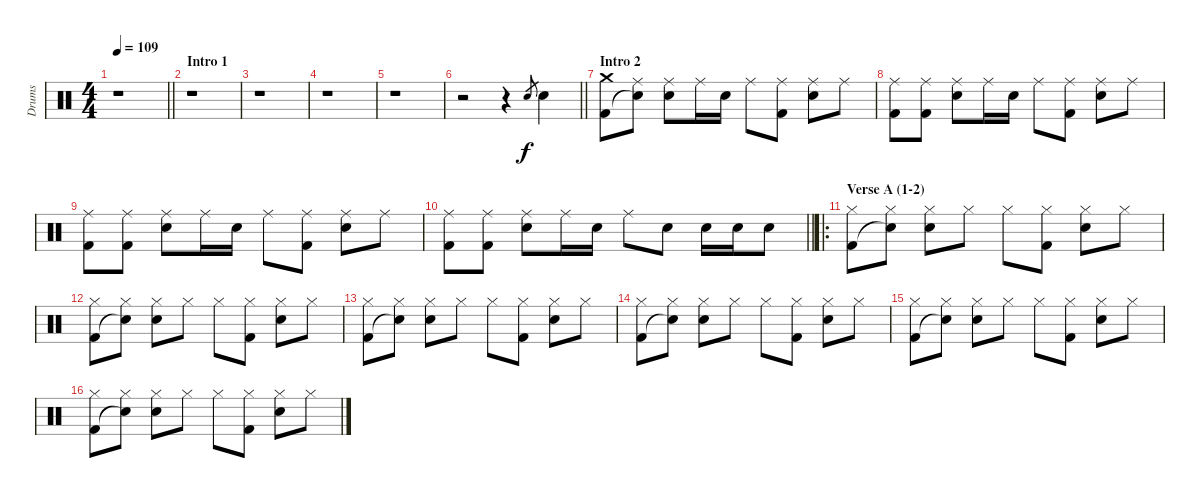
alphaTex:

\track ("Drums" "Drums") {instrument percussion}
\staff {score}
\articulation defaults
\ts (4 4)
\tempo 109
\clef neutral
\barLineRight lightlight
\ks aminor
r.1{dy f} |
\section ("" "Intro 1")
r.1 |
r.1 |
r.1 |
r.1 |
\barLineRight lightlight
r.2 r.4 "Electric Snare (hit)".8{gr} "Electric Snare (hit)".4 |
\section ("" "Intro 2")
("Crash medium (hit)" "Kick (hit) 2").8 ("Ride (middle)" "Snare (hit)"{t}).8 ("Ride (middle)" "Electric Snare (hit)").8 "Ride (middle)".16 "Electric Snare (hit)".16 "Ride (middle)".8 ("Ride (middle)" "Kick (hit) 2").8 ("Ride (middle)" "Electric Snare (hit)").8 "Ride (middle)".8 |
("Ride (middle)" "Kick (hit) 2").8 ("Ride (middle)" "Kick (hit) 2").8 ("Ride (middle)" "Electric Snare (hit)").8 "Ride (middle)".16 "Electric Snare (hit)".16 "Ride (middle)".8 ("Ride (middle)" "Kick (hit) 2").8 ("Ride (middle)" "Electric Snare (hit)").8 "Ride (middle)".8 |
("Ride (middle)" "Kick (hit) 2").8 ("Ride (middle)" "Kick (hit) 2").8 ("Ride (middle)" "Electric Snare (hit)").8 "Ride (middle)".16 "Electric Snare (hit)".16 "Ride (middle)".8 ("Ride (middle)" "Kick (hit) 2").8 ("Ride (middle)" "Electric Snare (hit)").8 "Ride (middle)".8 |
\barLineRight lightlight
("Ride (middle)" "Kick (hit) 2").8 ("Ride (middle)" "Kick (hit) 2").8 ("Ride (middle)" "Electric Snare (hit)").8 "Ride (middle)".16 "Electric Snare (hit)".16 "Ride (middle)".8 "Electric Snare (hit)".8 "Electric Snare (hit)".16 "Electric Snare (hit)".16 "Electric Snare (hit)".8 |
\ro
\section ("" "Verse A (1-2)")
("Hi-Hat (closed)" "Kick (hit) 2").8 ("Hi-Hat (closed)" "Snare (hit)"{t}).8 ("Hi-Hat (closed)" "Electric Snare (hit)").8 "Hi-Hat (closed)".8 "Hi-Hat (closed)".8 ("Hi-Hat (closed)" "Kick (hit) 2").8 ("Hi-Hat (closed)" "Electric Snare (hit)").8 "Hi-Hat (closed)".8 |
("Hi-Hat (closed)" "Kick (hit) 2").8 ("Hi-Hat (closed)" "Snare (hit)"{t}).8 ("Hi-Hat (closed)" "Electric Snare (hit)").8 "Hi-Hat (closed)".8 "Hi-Hat (closed)".8 ("Hi-Hat (closed)" "Kick (hit) 2").8 ("Hi-Hat (closed)" "Electric Snare (hit)").8 "Hi-Hat (closed)".8 |
("Hi-Hat (closed)" "Kick (hit) 2").8 ("Hi-Hat (closed)" "Snare (hit)"{t}).8 ("Hi-Hat (closed)" "Electric Snare (hit)").8 "Hi-Hat (closed)".8 "Hi-Hat (closed)".8 ("Hi-Hat (closed)" "Kick (hit) 2").8 ("Hi-Hat (closed)" "Electric Snare (hit)").8 "Hi-Hat (closed)".8 |
("Hi-Hat (closed)" "Kick (hit) 2").8 ("Hi-Hat (closed)" "Snare (hit)"{t}).8 ("Hi-Hat (closed)" "Electric Snare (hit)").8 "Hi-Hat (closed)".8 "Hi-Hat (closed)".8 ("Hi-Hat (closed)" "Kick (hit) 2").8 ("Hi-Hat (closed)" "Electric Snare (hit)").8 "Hi-Hat (closed)".8 |
("Hi-Hat (closed)" "Kick (hit) 2").8 ("Hi-Hat (closed)" "Snare (hit)"{t}).8 ("Hi-Hat (closed)" "Electric Snare (hit)").8 "Hi-Hat (closed)".8 "Hi-Hat (closed)".8 ("Hi-Hat (closed)" "Kick (hit) 2").8 ("Hi-Hat (closed)" "Electric Snare (hit)").8 "Hi-Hat (closed)".8 |
("Hi-Hat (closed)" "Kick (hit) 2").8 ("Hi-Hat (closed)" "Snare (hit)"{t}).8 ("Hi-Hat (closed)" "Electric Snare (hit)").8 "Hi-Hat (closed)".8 "Hi-Hat (closed)".8 ("Hi-Hat (closed)" "Kick (hit) 2").8 ("Hi-Hat (closed)" "Electric Snare (hit)").8 "Hi-Hat (closed)".8
